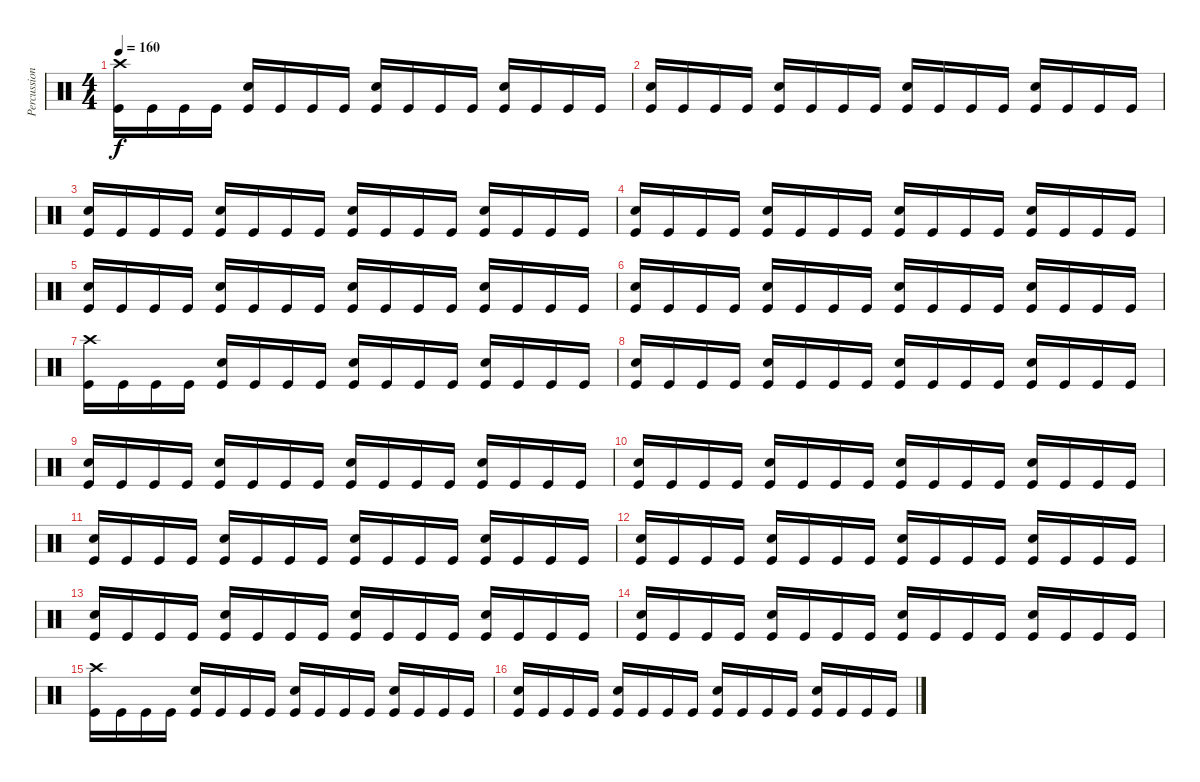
\track ("Percussioni" "Percussion") {instrument percussion}
\staff {score}
\articulation defaults
\ts (4 4)
\tempo 160
\clef neutral
\ks c
("Crash high (hit)" "Kick (hit)").16{dy f} "Kick (hit)".16 "Kick (hit)".16 "Kick (hit)".16 ("Snare (hit) 2" "Kick (hit)").16 "Kick (hit)".16 "Kick (hit)".16 "Kick (hit)".16 ("Snare (hit) 2" "Kick (hit)").16 "Kick (hit)".16 "Kick (hit)".16 "Kick (hit)".16 ("Snare (hit) 2" "Kick (hit)").16 "Kick (hit)".16 "Kick (hit)".16 "Kick (hit)".16 |
("Snare (hit) 2" "Kick (hit)").16 "Kick (hit)".16 "Kick (hit)".16 "Kick (hit)".16 ("Snare (hit) 2" "Kick (hit)").16 "Kick (hit)".16 "Kick (hit)".16 "Kick (hit)".16 ("Snare (hit) 2" "Kick (hit)").16 "Kick (hit)".16 "Kick (hit)".16 "Kick (hit)".16 ("Snare (hit) 2" "Kick (hit)").16 "Kick (hit)".16 "Kick (hit)".16 "Kick (hit)".16 |
("Snare (hit) 2" "Kick (hit)").16 "Kick (hit)".16 "Kick (hit)".16 "Kick (hit)".16 ("Snare (hit) 2" "Kick (hit)").16 "Kick (hit)".16 "Kick (hit)".16 "Kick (hit)".16 ("Snare (hit) 2" "Kick (hit)").16 "Kick (hit)".16 "Kick (hit)".16 "Kick (hit)".16 ("Snare (hit) 2" "Kick (hit)").16 "Kick (hit)".16 "Kick (hit)".16 "Kick (hit)".16 |
("Snare (hit) 2" "Kick (hit)").16 "Kick (hit)".16 "Kick (hit)".16 "Kick (hit)".16 ("Snare (hit) 2" "Kick (hit)").16 "Kick (hit)".16 "Kick (hit)".16 "Kick (hit)".16 ("Snare (hit) 2" "Kick (hit)").16 "Kick (hit)".16 "Kick (hit)".16 "Kick (hit)".16 ("Snare (hit) 2" "Kick (hit)").16 "Kick (hit)".16 "Kick (hit)".16 "Kick (hit)".16 |
("Snare (hit) 2" "Kick (hit)").16 "Kick (hit)".16 "Kick (hit)".16 "Kick (hit)".16 ("Snare (hit) 2" "Kick (hit)").16 "Kick (hit)".16 "Kick (hit)".16 "Kick (hit)".16 ("Snare (hit) 2" "Kick (hit)").16 "Kick (hit)".16 "Kick (hit)".16 "Kick (hit)".16 ("Snare (hit) 2" "Kick (hit)").16 "Kick (hit)".16 "Kick (hit)".16 "Kick (hit)".16 |
("Snare (hit) 2" "Kick (hit)").16 "Kick (hit)".16 "Kick (hit)".16 "Kick (hit)".16 ("Snare (hit) 2" "Kick (hit)").16 "Kick (hit)".16 "Kick (hit)".16 "Kick (hit)".16 ("Snare (hit) 2" "Kick (hit)").16 "Kick (hit)".16 "Kick (hit)".16 "Kick (hit)".16 ("Snare (hit) 2" "Kick (hit)").16 "Kick (hit)".16 "Kick (hit)".16 "Kick (hit)".16 |
("Crash high (hit)" "Kick (hit)").16 "Kick (hit)".16 "Kick (hit)".16 "Kick (hit)".16 ("Snare (hit) 2" "Kick (hit)").16 "Kick (hit)".16 "Kick (hit)".16 "Kick (hit)".16 ("Snare (hit) 2" "Kick (hit)").16 "Kick (hit)".16 "Kick (hit)".16 "Kick (hit)".16 ("Snare (hit) 2" "Kick (hit)").16 "Kick (hit)".16 "Kick (hit)".16 "Kick (hit)".16 |
("Snare (hit) 2" "Kick (hit)").16 "Kick (hit)".16 "Kick (hit)".16 "Kick (hit)".16 ("Snare (hit) 2" "Kick (hit)").16 "Kick (hit)".16 "Kick (hit)".16 "Kick (hit)".16 ("Snare (hit) 2" "Kick (hit)").16 "Kick (hit)".16 "Kick (hit)".16 "Kick (hit)".16 ("Snare (hit) 2" "Kick (hit)").16 "Kick (hit)".16 "Kick (hit)".16 "Kick (hit)".16 |
("Snare (hit) 2" "Kick (hit)").16 "Kick (hit)".16 "Kick (hit)".16 "Kick (hit)".16 ("Snare (hit) 2" "Kick (hit)").16 "Kick (hit)".16 "Kick (hit)".16 "Kick (hit)".16 ("Snare (hit) 2" "Kick (hit)").16 "Kick (hit)".16 "Kick (hit)".16 "Kick (hit)".16 ("Snare (hit) 2" "Kick (hit)").16 "Kick (hit)".16 "Kick (hit)".16 "Kick (hit)".16 |
("Snare (hit) 2" "Kick (hit)").16 "Kick (hit)".16 "Kick (hit)".16 "Kick (hit)".16 ("Snare (hit) 2" "Kick (hit)").16 "Kick (hit)".16 "Kick (hit)".16 "Kick (hit)".16 ("Snare (hit) 2" "Kick (hit)").16 "Kick (hit)".16 "Kick (hit)".16 "Kick (hit)".16 ("Snare (hit) 2" "Kick (hit)").16 "Kick (hit)".16 "Kick (hit)".16 "Kick (hit)".16 |
("Snare (hit) 2" "Kick (hit)").16 "Kick (hit)".16 "Kick (hit)".16 "Kick (hit)".16 ("Snare (hit) 2" "Kick (hit)").16 "Kick (hit)".16 "Kick (hit)".16 "Kick (hit)".16 ("Snare (hit) 2" "Kick (hit)").16 "Kick (hit)".16 "Kick (hit)".16 "Kick (hit)".16 ("Snare (hit) 2" "Kick (hit)").16 "Kick (hit)".16 "Kick (hit)".16 "Kick (hit)".16 |
("Snare (hit) 2" "Kick (hit)").16 "Kick (hit)".16 "Kick (hit)".16 "Kick (hit)".16 ("Snare (hit) 2" "Kick (hit)").16 "Kick (hit)".16 "Kick (hit)".16 "Kick (hit)".16 ("Snare (hit) 2" "Kick (hit)").16 "Kick (hit)".16 "Kick (hit)".16 "Kick (hit)".16 ("Snare (hit) 2" "Kick (hit)").16 "Kick (hit)".16 "Kick (hit)".16 "Kick (hit)".16 |
("Snare (hit) 2" "Kick (hit)").16 "Kick (hit)".16 "Kick (hit)".16 "Kick (hit)".16 ("Snare (hit) 2" "Kick (hit)").16 "Kick (hit)".16 "Kick (hit)".16 "Kick (hit)".16 ("Snare (hit) 2" "Kick (hit)").16 "Kick (hit)".16 "Kick (hit)".16 "Kick (hit)".16 ("Snare (hit) 2" "Kick (hit)").16 "Kick (hit)".16 "Kick (hit)".16 "Kick (hit)".16 |
("Snare (hit) 2" "Kick (hit)").16 "Kick (hit)".16 "Kick (hit)".16 "Kick (hit)".16 ("Snare (hit) 2" "Kick (hit)").16 "Kick (hit)".16 "Kick (hit)".16 "Kick (hit)".16 ("Snare (hit) 2" "Kick (hit)").16 "Kick (hit)".16 "Kick (hit)".16 "Kick (hit)".16 ("Snare (hit) 2" "Kick (hit)").16 "Kick (hit)".16 "Kick (hit)".16 "Kick (hit)".16 |
("Crash high (hit)" "Kick (hit)").16 "Kick (hit)".16 "Kick (hit)".16 "Kick (hit)".16 ("Snare (hit) 2" "Kick (hit)").16 "Kick (hit)".16 "Kick (hit)".16 "Kick (hit)".16 ("Snare (hit) 2" "Kick (hit)").16 "Kick (hit)".16 "Kick (hit)".16 "Kick (hit)".16 ("Snare (hit) 2" "Kick (hit)").16 "Kick (hit)".16 "Kick (hit)".16 "Kick (hit)".16 |
("Snare (hit) 2" "Kick (hit)").16 "Kick (hit)".16 "Kick (hit)".16 "Kick (hit)".16 ("Snare (hit) 2" "Kick (hit)").16 "Kick (hit)".16 "Kick (hit)".16 "Kick (hit)".16 ("Snare (hit) 2" "Kick (hit)").16 "Kick (hit)".16 "Kick (hit)".16 "Kick (hit)".16 ("Snare (hit) 2" "Kick (hit)").16 "Kick (hit)".16 "Kick (hit)".16 "Kick (hit)".16
